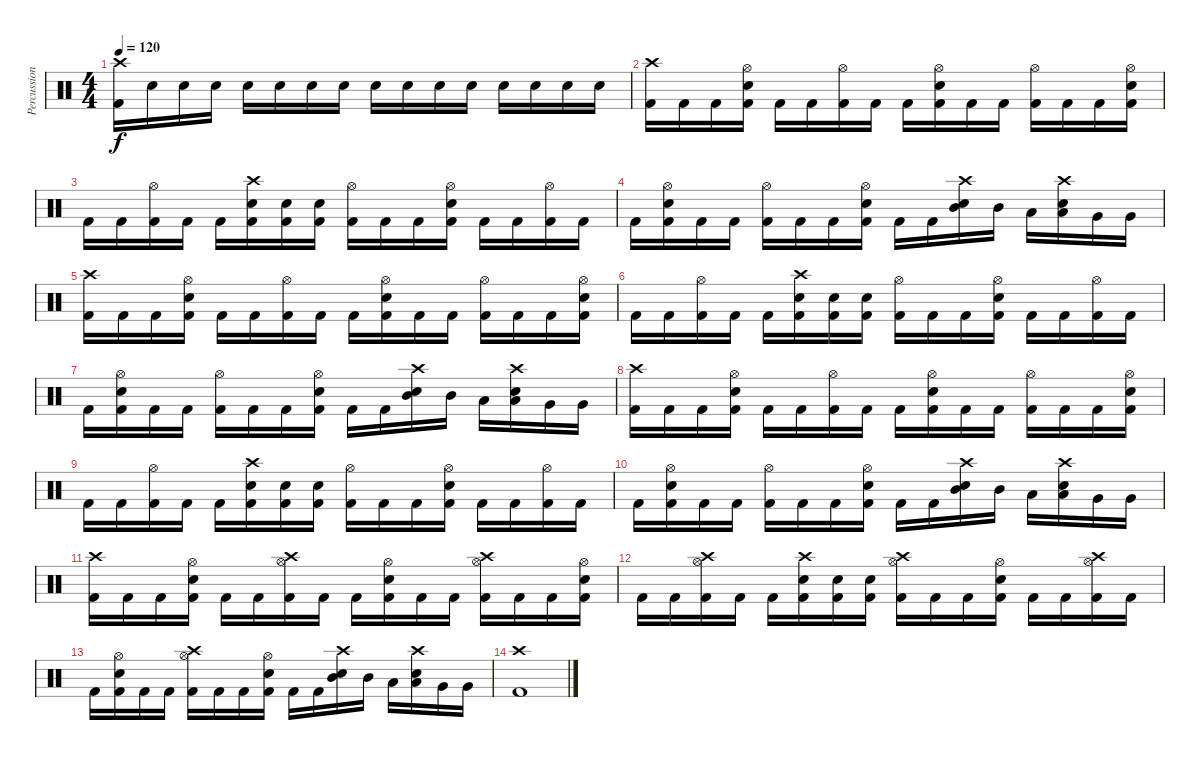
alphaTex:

\track ("Percussion" "Percussion") {instrument percussion}
\staff {score}
\articulation defaults
\ts (4 4)
\tempo 120
\clef neutral
\ks c
("Crash high (hit)" "Kick (hit) 2").16{dy f} "Snare (hit) 2".16 "Snare (hit) 2".16 "Snare (hit) 2".16 "Snare (hit) 2".16 "Snare (hit) 2".16 "Snare (hit) 2".16 "Snare (hit) 2".16 "Snare (hit) 2".16 "Snare (hit) 2".16 "Snare (hit) 2".16 "Snare (hit) 2".16 "Snare (hit) 2".16 "Snare (hit) 2".16 "Snare (hit) 2".16 "Snare (hit) 2".16 |
("Crash high (hit)" "Kick (hit) 2").16 "Kick (hit) 2".16 "Kick (hit) 2".16 ("Hi-Hat (open)" "Snare (hit) 2" "Kick (hit) 2").16 "Kick (hit) 2".16 "Kick (hit) 2".16 ("Hi-Hat (open)" "Kick (hit) 2").16 "Kick (hit) 2".16 "Kick (hit) 2".16 ("Hi-Hat (open)" "Snare (hit) 2" "Kick (hit) 2").16 "Kick (hit) 2".16 "Kick (hit) 2".16 ("Hi-Hat (open)" "Kick (hit) 2").16 "Kick (hit) 2".16 "Kick (hit) 2".16 ("Hi-Hat (open)" "Snare (hit) 2" "Kick (hit) 2").16 |
"Kick (hit) 2".16 "Kick (hit) 2".16 ("Hi-Hat (open)" "Kick (hit) 2").16 "Kick (hit) 2".16 "Kick (hit) 2".16 ("Crash high (hit)" "Snare (hit) 2" "Kick (hit) 2").16 ("Snare (hit) 2" "Kick (hit) 2").16 ("Snare (hit) 2" "Kick (hit) 2").16 ("Hi-Hat (open)" "Kick (hit) 2").16 "Kick (hit) 2".16 "Kick (hit) 2".16 ("Hi-Hat (open)" "Snare (hit) 2" "Kick (hit) 2").16 "Kick (hit) 2".16 "Kick (hit) 2".16 ("Hi-Hat (open)" "Kick (hit) 2").16 "Kick (hit) 2".16 |
"Kick (hit) 2".16 ("Hi-Hat (open)" "Snare (hit) 2" "Kick (hit) 2").16 "Kick (hit) 2".16 "Kick (hit) 2".16 ("Hi-Hat (open)" "Kick (hit) 2").16 "Kick (hit) 2".16 "Kick (hit) 2".16 ("Hi-Hat (open)" "Snare (hit) 2" "Kick (hit) 2").16 "Kick (hit) 2".16 "Kick (hit) 2".16 ("Mid Tom (hit)" "Crash high (hit)" "Snare (hit) 2").16 "Mid Tom (hit)".16 "Low Tom (hit)".16 ("Low Tom (hit)" "Crash high (hit)" "Snare (hit) 2").16 "Very Low Tom (hit)".16 "Very Low Tom (hit)".16 |
("Crash high (hit)" "Kick (hit) 2").16 "Kick (hit) 2".16 "Kick (hit) 2".16 ("Hi-Hat (open)" "Snare (hit) 2" "Kick (hit) 2").16 "Kick (hit) 2".16 "Kick (hit) 2".16 ("Hi-Hat (open)" "Kick (hit) 2").16 "Kick (hit) 2".16 "Kick (hit) 2".16 ("Hi-Hat (open)" "Snare (hit) 2" "Kick (hit) 2").16 "Kick (hit) 2".16 "Kick (hit) 2".16 ("Hi-Hat (open)" "Kick (hit) 2").16 "Kick (hit) 2".16 "Kick (hit) 2".16 ("Hi-Hat (open)" "Snare (hit) 2" "Kick (hit) 2").16 |
"Kick (hit) 2".16 "Kick (hit) 2".16 ("Hi-Hat (open)" "Kick (hit) 2").16 "Kick (hit) 2".16 "Kick (hit) 2".16 ("Crash high (hit)" "Snare (hit) 2" "Kick (hit) 2").16 ("Snare (hit) 2" "Kick (hit) 2").16 ("Snare (hit) 2" "Kick (hit) 2").16 ("Hi-Hat (open)" "Kick (hit) 2").16 "Kick (hit) 2".16 "Kick (hit) 2".16 ("Hi-Hat (open)" "Snare (hit) 2" "Kick (hit) 2").16 "Kick (hit) 2".16 "Kick (hit) 2".16 ("Hi-Hat (open)" "Kick (hit) 2").16 "Kick (hit) 2".16 |
"Kick (hit) 2".16 ("Hi-Hat (open)" "Snare (hit) 2" "Kick (hit) 2").16 "Kick (hit) 2".16 "Kick (hit) 2".16 ("Hi-Hat (open)" "Kick (hit) 2").16 "Kick (hit) 2".16 "Kick (hit) 2".16 ("Hi-Hat (open)" "Snare (hit) 2" "Kick (hit) 2").16 "Kick (hit) 2".16 "Kick (hit) 2".16 ("Mid Tom (hit)" "Crash high (hit)" "Snare (hit) 2").16 "Mid Tom (hit)".16 "Low Tom (hit)".16 ("Low Tom (hit)" "Crash high (hit)" "Snare (hit) 2").16 "Very Low Tom (hit)".16 "Very Low Tom (hit)".16 |
("Crash high (hit)" "Kick (hit) 2").16 "Kick (hit) 2".16 "Kick (hit) 2".16 ("Hi-Hat (open)" "Snare (hit) 2" "Kick (hit) 2").16 "Kick (hit) 2".16 "Kick (hit) 2".16 ("Hi-Hat (open)" "Kick (hit) 2").16 "Kick (hit) 2".16 "Kick (hit) 2".16 ("Hi-Hat (open)" "Snare (hit) 2" "Kick (hit) 2").16 "Kick (hit) 2".16 "Kick (hit) 2".16 ("Hi-Hat (open)" "Kick (hit) 2").16 "Kick (hit) 2".16 "Kick (hit) 2".16 ("Hi-Hat (open)" "Snare (hit) 2" "Kick (hit) 2").16 |
"Kick (hit) 2".16 "Kick (hit) 2".16 ("Hi-Hat (open)" "Kick (hit) 2").16 "Kick (hit) 2".16 "Kick (hit) 2".16 ("Crash high (hit)" "Snare (hit) 2" "Kick (hit) 2").16 ("Snare (hit) 2" "Kick (hit) 2").16 ("Snare (hit) 2" "Kick (hit) 2").16 ("Hi-Hat (open)" "Kick (hit) 2").16 "Kick (hit) 2".16 "Kick (hit) 2".16 ("Hi-Hat (open)" "Snare (hit) 2" "Kick (hit) 2").16 "Kick (hit) 2".16 "Kick (hit) 2".16 ("Hi-Hat (open)" "Kick (hit) 2").16 "Kick (hit) 2".16 |
"Kick (hit) 2".16 ("Hi-Hat (open)" "Snare (hit) 2" "Kick (hit) 2").16 "Kick (hit) 2".16 "Kick (hit) 2".16 ("Hi-Hat (open)" "Kick (hit) 2").16 "Kick (hit) 2".16 "Kick (hit) 2".16 ("Hi-Hat (open)" "Snare (hit) 2" "Kick (hit) 2").16 "Kick (hit) 2".16 "Kick (hit) 2".16 ("Mid Tom (hit)" "Crash high (hit)" "Snare (hit) 2").16 "Mid Tom (hit)".16 "Low Tom (hit)".16 ("Low Tom (hit)" "Crash high (hit)" "Snare (hit) 2").16 "Very Low Tom (hit)".16 "Very Low Tom (hit)".16 |
("Crash high (hit)" "Kick (hit) 2").16 "Kick (hit) 2".16 "Kick (hit) 2".16 ("Hi-Hat (open)" "Snare (hit) 2" "Kick (hit) 2").16 "Kick (hit) 2".16 "Kick (hit) 2".16 ("Crash high (hit)" "Hi-Hat (open)" "Kick (hit) 2").16 "Kick (hit) 2".16 "Kick (hit) 2".16 ("Hi-Hat (open)" "Snare (hit) 2" "Kick (hit) 2").16 "Kick (hit) 2".16 "Kick (hit) 2".16 ("Crash high (hit)" "Hi-Hat (open)" "Kick (hit) 2").16 "Kick (hit) 2".16 "Kick (hit) 2".16 ("Hi-Hat (open)" "Snare (hit) 2" "Kick (hit) 2").16 |
"Kick (hit) 2".16 "Kick (hit) 2".16 ("Crash high (hit)" "Hi-Hat (open)" "Kick (hit) 2").16 "Kick (hit) 2".16 "Kick (hit) 2".16 ("Crash high (hit)" "Snare (hit) 2" "Kick (hit) 2").16 ("Snare (hit) 2" "Kick (hit) 2").16 ("Snare (hit) 2" "Kick (hit) 2").16 ("Crash high (hit)" "Hi-Hat (open)" "Kick (hit) 2").16 "Kick (hit) 2".16 "Kick (hit) 2".16 ("Hi-Hat (open)" "Snare (hit) 2" "Kick (hit) 2").16 "Kick (hit) 2".16 "Kick (hit) 2".16 ("Crash high (hit)" "Hi-Hat (open)" "Kick (hit) 2").16 "Kick (hit) 2".16 |
"Kick (hit) 2".16 ("Hi-Hat (open)" "Snare (hit) 2" "Kick (hit) 2").16 "Kick (hit) 2".16 "Kick (hit) 2".16 ("Crash high (hit)" "Hi-Hat (open)" "Kick (hit) 2").16 "Kick (hit) 2".16 "Kick (hit) 2".16 ("Hi-Hat (open)" "Snare (hit) 2" "Kick (hit) 2").16 "Kick (hit) 2".16 "Kick (hit) 2".16 ("Mid Tom (hit)" "Crash high (hit)" "Snare (hit) 2").16 "Mid Tom (hit)".16 "Low Tom (hit)".16 ("Low Tom (hit)" "Crash high (hit)" "Snare (hit) 2").16 "Very Low Tom (hit)".16 "Very Low Tom (hit)".16 |
("Crash high (hit)" "Kick (hit) 2").1
